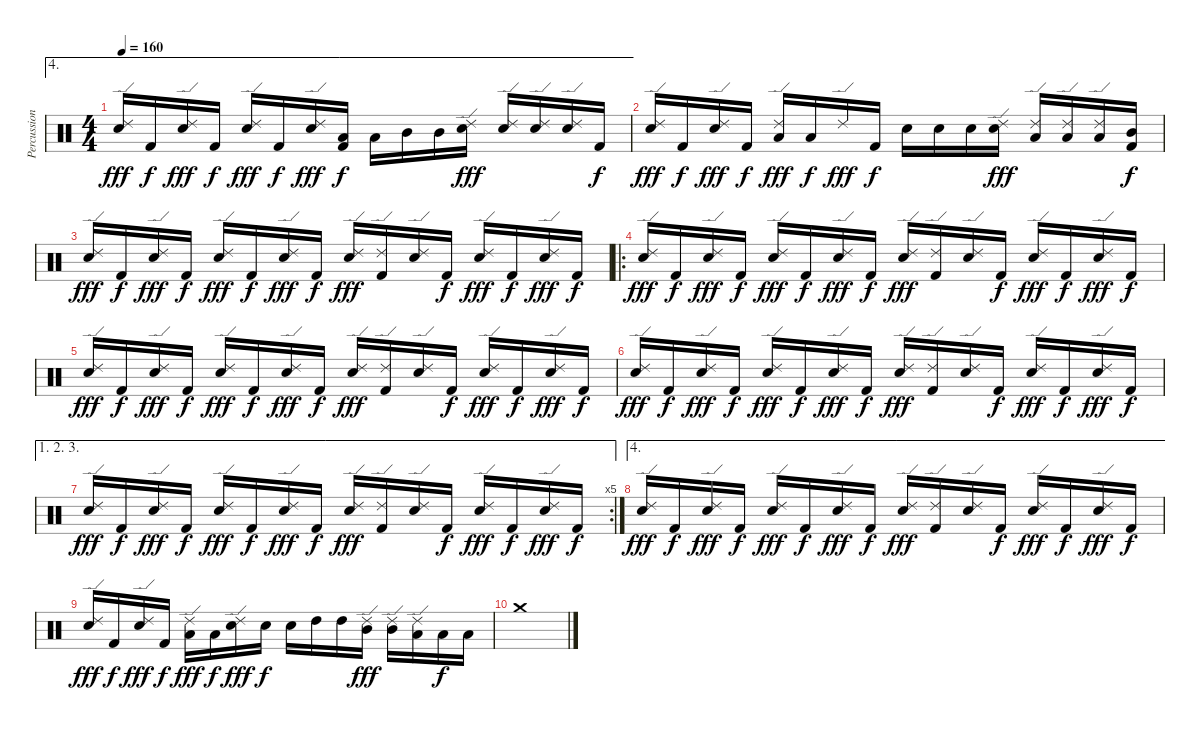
\track ("Percussion" "Percussion") {instrument percussion}
\staff {score}
\articulation defaults
\ae 4
\ts (4 4)
\tempo 160
\clef neutral
\ks c
("Ride (edge) 2" "Electric Snare (hit)").16{dy fff} "Kick (hit) 2".16{dy f} ("Ride (edge) 2" "Electric Snare (hit)").16{dy fff} "Kick (hit) 2".16{dy f} ("Ride (edge) 2" "Electric Snare (hit)").16{dy fff} "Kick (hit) 2".16{dy f} ("Ride (edge) 2" "Electric Snare (hit)").16{dy fff} ("Low Tom (hit)" "Kick (hit) 2").16{dy f} "Low Tom (hit)".16 "Mid Tom (hit)".16 "Mid Tom (hit)".16 ("Ride (edge) 2" "Electric Snare (hit)").16{dy fff} ("Ride (edge) 2" "Electric Snare (hit)").16 ("Ride (edge) 2" "Electric Snare (hit)").16 ("Ride (edge) 2" "Electric Snare (hit)").16 "Kick (hit) 2".16{dy f} |
("Ride (edge) 2" "Electric Snare (hit)").16{dy fff} "Kick (hit) 2".16{dy f} ("Ride (edge) 2" "Electric Snare (hit)").16{dy fff} "Kick (hit) 2".16{dy f} ("Ride (edge) 2" "Low Tom (hit)").16{dy fff} "Low Tom (hit)".16{dy f} "Ride (edge) 2".16{dy fff} "Kick (hit) 2".16{dy f} "Electric Snare (hit)".16 "Electric Snare (hit)".16 "Electric Snare (hit)".16 ("Ride (edge) 2" "Electric Snare (hit)").16{dy fff} ("Ride (edge) 2" "Low Tom (hit)").16 ("Ride (edge) 2" "Low Tom (hit)").16 ("Ride (edge) 2" "Low Tom (hit)").16 ("Mid Tom (hit)" "Kick (hit) 2").16{dy f} |
("Ride (edge) 2" "Electric Snare (hit)").16{dy fff} "Kick (hit) 2".16{dy f} ("Ride (edge) 2" "Electric Snare (hit)").16{dy fff} "Kick (hit) 2".16{dy f} ("Ride (edge) 2" "Electric Snare (hit)").16{dy fff} "Kick (hit) 2".16{dy f} ("Ride (edge) 2" "Electric Snare (hit)").16{dy fff} "Kick (hit) 2".16{dy f} ("Ride (edge) 2" "Electric Snare (hit)").16{dy fff} ("Ride (edge) 2" "Kick (hit) 2").16 ("Ride (edge) 2" "Electric Snare (hit)").16 "Kick (hit) 2".16{dy f} ("Ride (edge) 2" "Electric Snare (hit)").16{dy fff} "Kick (hit) 2".16{dy f} ("Ride (edge) 2" "Electric Snare (hit)").16{dy fff} "Kick (hit) 2".16{dy f} |
\ro
("Ride (edge) 2" "Electric Snare (hit)").16{dy fff} "Kick (hit) 2".16{dy f} ("Ride (edge) 2" "Electric Snare (hit)").16{dy fff} "Kick (hit) 2".16{dy f} ("Ride (edge) 2" "Electric Snare (hit)").16{dy fff} "Kick (hit) 2".16{dy f} ("Ride (edge) 2" "Electric Snare (hit)").16{dy fff} "Kick (hit) 2".16{dy f} ("Ride (edge) 2" "Electric Snare (hit)").16{dy fff} ("Ride (edge) 2" "Kick (hit) 2").16 ("Ride (edge) 2" "Electric Snare (hit)").16 "Kick (hit) 2".16{dy f} ("Ride (edge) 2" "Electric Snare (hit)").16{dy fff} "Kick (hit) 2".16{dy f} ("Ride (edge) 2" "Electric Snare (hit)").16{dy fff} "Kick (hit) 2".16{dy f} |
("Ride (edge) 2" "Electric Snare (hit)").16{dy fff} "Kick (hit) 2".16{dy f} ("Ride (edge) 2" "Electric Snare (hit)").16{dy fff} "Kick (hit) 2".16{dy f} ("Ride (edge) 2" "Electric Snare (hit)").16{dy fff} "Kick (hit) 2".16{dy f} ("Ride (edge) 2" "Electric Snare (hit)").16{dy fff} "Kick (hit) 2".16{dy f} ("Ride (edge) 2" "Electric Snare (hit)").16{dy fff} ("Ride (edge) 2" "Kick (hit) 2").16 ("Ride (edge) 2" "Electric Snare (hit)").16 "Kick (hit) 2".16{dy f} ("Ride (edge) 2" "Electric Snare (hit)").16{dy fff} "Kick (hit) 2".16{dy f} ("Ride (edge) 2" "Electric Snare (hit)").16{dy fff} "Kick (hit) 2".16{dy f} |
("Ride (edge) 2" "Electric Snare (hit)").16{dy fff} "Kick (hit) 2".16{dy f} ("Ride (edge) 2" "Electric Snare (hit)").16{dy fff} "Kick (hit) 2".16{dy f} ("Ride (edge) 2" "Electric Snare (hit)").16{dy fff} "Kick (hit) 2".16{dy f} ("Ride (edge) 2" "Electric Snare (hit)").16{dy fff} "Kick (hit) 2".16{dy f} ("Ride (edge) 2" "Electric Snare (hit)").16{dy fff} ("Ride (edge) 2" "Kick (hit) 2").16 ("Ride (edge) 2" "Electric Snare (hit)").16 "Kick (hit) 2".16{dy f} ("Ride (edge) 2" "Electric Snare (hit)").16{dy fff} "Kick (hit) 2".16{dy f} ("Ride (edge) 2" "Electric Snare (hit)").16{dy fff} "Kick (hit) 2".16{dy f} |
\ae (1 2 3)
\rc 5
("Ride (edge) 2" "Electric Snare (hit)").16{dy fff} "Kick (hit) 2".16{dy f} ("Ride (edge) 2" "Electric Snare (hit)").16{dy fff} "Kick (hit) 2".16{dy f} ("Ride (edge) 2" "Electric Snare (hit)").16{dy fff} "Kick (hit) 2".16{dy f} ("Ride (edge) 2" "Electric Snare (hit)").16{dy fff} "Kick (hit) 2".16{dy f} ("Ride (edge) 2" "Electric Snare (hit)").16{dy fff} ("Ride (edge) 2" "Kick (hit) 2").16 ("Ride (edge) 2" "Electric Snare (hit)").16 "Kick (hit) 2".16{dy f} ("Ride (edge) 2" "Electric Snare (hit)").16{dy fff} "Kick (hit) 2".16{dy f} ("Ride (edge) 2" "Electric Snare (hit)").16{dy fff} "Kick (hit) 2".16{dy f} |
\ae 4
("Ride (edge) 2" "Electric Snare (hit)").16{dy fff} "Kick (hit) 2".16{dy f} ("Ride (edge) 2" "Electric Snare (hit)").16{dy fff} "Kick (hit) 2".16{dy f} ("Ride (edge) 2" "Electric Snare (hit)").16{dy fff} "Kick (hit) 2".16{dy f} ("Ride (edge) 2" "Electric Snare (hit)").16{dy fff} "Kick (hit) 2".16{dy f} ("Ride (edge) 2" "Electric Snare (hit)").16{dy fff} ("Ride (edge) 2" "Kick (hit) 2").16 ("Ride (edge) 2" "Electric Snare (hit)").16 "Kick (hit) 2".16{dy f} ("Ride (edge) 2" "Electric Snare (hit)").16{dy fff} "Kick (hit) 2".16{dy f} ("Ride (edge) 2" "Electric Snare (hit)").16{dy fff} "Kick (hit) 2".16{dy f} |
("Ride (edge) 2" "Electric Snare (hit)").16{dy fff} "Kick (hit) 2".16{dy f} ("Ride (edge) 2" "Electric Snare (hit)").16{dy fff} "Kick (hit) 2".16{dy f} ("Ride (edge) 2" "Low Tom (hit)").16{dy fff} "Low Tom (hit)".16{dy f} ("Ride (edge) 2" "Electric Snare (hit)").16{dy fff} "Electric Snare (hit)".16{dy f} "Electric Snare (hit)".16 "High Tom (hit)".16 "High Tom (hit)".16 ("Ride (edge) 2" "Mid Tom (hit)").16{dy fff} ("Ride (edge) 2" "Mid Tom (hit)").16 ("Ride (edge) 2" "Low Tom (hit)").16 "Low Tom (hit)".16{dy f} "Low Tom (hit)".16 |
"Crash medium (hit)".1
